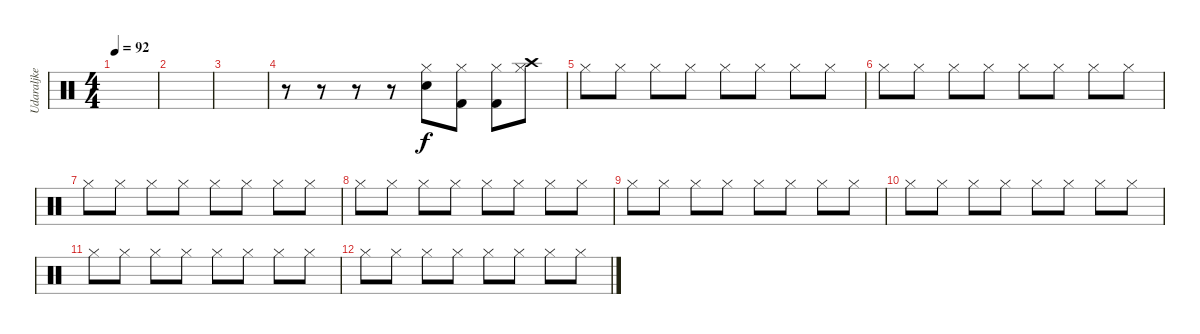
\track ("Udaraljke" "Udaraljke") {instrument percussion}
\staff {score}
\articulation defaults
\ts (4 4)
\tempo 92
\clef neutral
\ks c
|
|
|
r.8 r.8 r.8 r.8 ("Snare (hit) 2" "Hi-Hat (closed)").8 ("Kick (hit) 2" "Hi-Hat (closed)").8 ("Kick (hit) 2" "Hi-Hat (closed)").8 ("Crash high (hit)" "Hi-Hat (closed)").8 |
"Hi-Hat (closed)".8 "Hi-Hat (closed)".8 "Hi-Hat (closed)".8 "Hi-Hat (closed)".8 "Hi-Hat (closed)".8 "Hi-Hat (closed)".8 "Hi-Hat (closed)".8 "Hi-Hat (closed)".8 |
"Hi-Hat (closed)".8 "Hi-Hat (closed)".8 "Hi-Hat (closed)".8 "Hi-Hat (closed)".8 "Hi-Hat (closed)".8 "Hi-Hat (closed)".8 "Hi-Hat (closed)".8 "Hi-Hat (closed)".8 |
"Hi-Hat (closed)".8 "Hi-Hat (closed)".8 "Hi-Hat (closed)".8 "Hi-Hat (closed)".8 "Hi-Hat (closed)".8 "Hi-Hat (closed)".8 "Hi-Hat (closed)".8 "Hi-Hat (closed)".8 |
"Hi-Hat (closed)".8 "Hi-Hat (closed)".8 "Hi-Hat (closed)".8 "Hi-Hat (closed)".8 "Hi-Hat (closed)".8 "Hi-Hat (closed)".8 "Hi-Hat (closed)".8 "Hi-Hat (closed)".8 |
"Hi-Hat (closed)".8 "Hi-Hat (closed)".8 "Hi-Hat (closed)".8 "Hi-Hat (closed)".8 "Hi-Hat (closed)".8 "Hi-Hat (closed)".8 "Hi-Hat (closed)".8 "Hi-Hat (closed)".8 |
"Hi-Hat (closed)".8 "Hi-Hat (closed)".8 "Hi-Hat (closed)".8 "Hi-Hat (closed)".8 "Hi-Hat (closed)".8 "Hi-Hat (closed)".8 "Hi-Hat (closed)".8 "Hi-Hat (closed)".8 |
"Hi-Hat (closed)".8 "Hi-Hat (closed)".8 "Hi-Hat (closed)".8 "Hi-Hat (closed)".8 "Hi-Hat (closed)".8 "Hi-Hat (closed)".8 "Hi-Hat (closed)".8 "Hi-Hat (closed)".8 |
"Hi-Hat (closed)".8 "Hi-Hat (closed)".8 "Hi-Hat (closed)".8 "Hi-Hat (closed)".8 "Hi-Hat (closed)".8 "Hi-Hat (closed)".8 "Hi-Hat (closed)".8 "Hi-Hat (closed)".8
